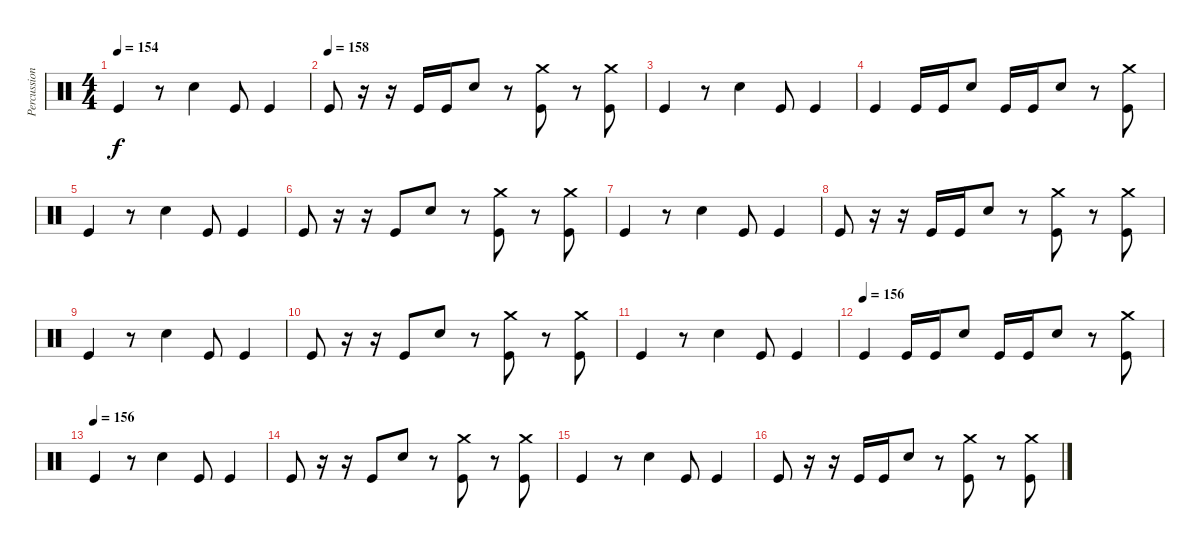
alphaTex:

\track ("Percussion" "Percussion") {instrument percussion}
\staff {score}
\articulation defaults
\ts (4 4)
\tempo 154
\clef neutral
\ks c "Kick (hit)".4{dy f}
r.8 "Electric Snare (hit)".4 "Kick (hit)".8 "Kick (hit)".4 |
\tempo (158)
"Kick (hit)".8 r.16 r.16 "Kick (hit)".16 "Kick (hit)".16 "Electric Snare (hit)".8 r.8 ("Kick (hit)" "Crash medium (hit)").8 r.8 ("Kick (hit)" "Crash medium (hit)").8 |
"Kick (hit)".4 r.8 "Electric Snare (hit)".4 "Kick (hit)".8 "Kick (hit)".4 |
"Kick (hit)".4 "Kick (hit)".16 "Kick (hit)".16 "Electric Snare (hit)".8 "Kick (hit)".16 "Kick (hit)".16 "Electric Snare (hit)".8 r.8 ("Kick (hit)" "Crash medium (hit)").8 |
"Kick (hit)".4 r.8 "Electric Snare (hit)".4 "Kick (hit)".8 "Kick (hit)".4 |
"Kick (hit)".8 r.16 r.16 "Kick (hit)".8 "Electric Snare (hit)".8 r.8 ("Kick (hit)" "Crash medium (hit)").8 r.8 ("Kick (hit)" "Crash medium (hit)").8 |
"Kick (hit)".4 r.8 "Electric Snare (hit)".4 "Kick (hit)".8 "Kick (hit)".4 |
"Kick (hit)".8 r.16 r.16 "Kick (hit)".16 "Kick (hit)".16 "Electric Snare (hit)".8 r.8 ("Kick (hit)" "Crash medium (hit)").8 r.8 ("Kick (hit)" "Crash medium (hit)").8 |
"Kick (hit)".4 r.8 "Electric Snare (hit)".4 "Kick (hit)".8 "Kick (hit)".4 |
"Kick (hit)".8 r.16 r.16 "Kick (hit)".8 "Electric Snare (hit)".8 r.8 ("Kick (hit)" "Crash medium (hit)").8 r.8 ("Kick (hit)" "Crash medium (hit)").8 |
"Kick (hit)".4 r.8 "Electric Snare (hit)".4 "Kick (hit)".8 "Kick (hit)".4 |
\tempo (156)
"Kick (hit)".4 "Kick (hit)".16 "Kick (hit)".16 "Electric Snare (hit)".8 "Kick (hit)".16 "Kick (hit)".16 "Electric Snare (hit)".8 r.8 ("Kick (hit)" "Crash medium (hit)").8 |
\tempo (156)
"Kick (hit)".4 r.8 "Electric Snare (hit)".4 "Kick (hit)".8 "Kick (hit)".4 |
"Kick (hit)".8 r.16 r.16 "Kick (hit)".8 "Electric Snare (hit)".8 r.8 ("Kick (hit)" "Crash medium (hit)").8 r.8 ("Kick (hit)" "Crash medium (hit)").8 |
"Kick (hit)".4 r.8 "Electric Snare (hit)".4 "Kick (hit)".8 "Kick (hit)".4 |
"Kick (hit)".8 r.16 r.16 "Kick (hit)".16 "Kick (hit)".16 "Electric Snare (hit)".8 r.8 ("Kick (hit)" "Crash medium (hit)").8 r.8 ("Kick (hit)" "Crash medium (hit)").8
